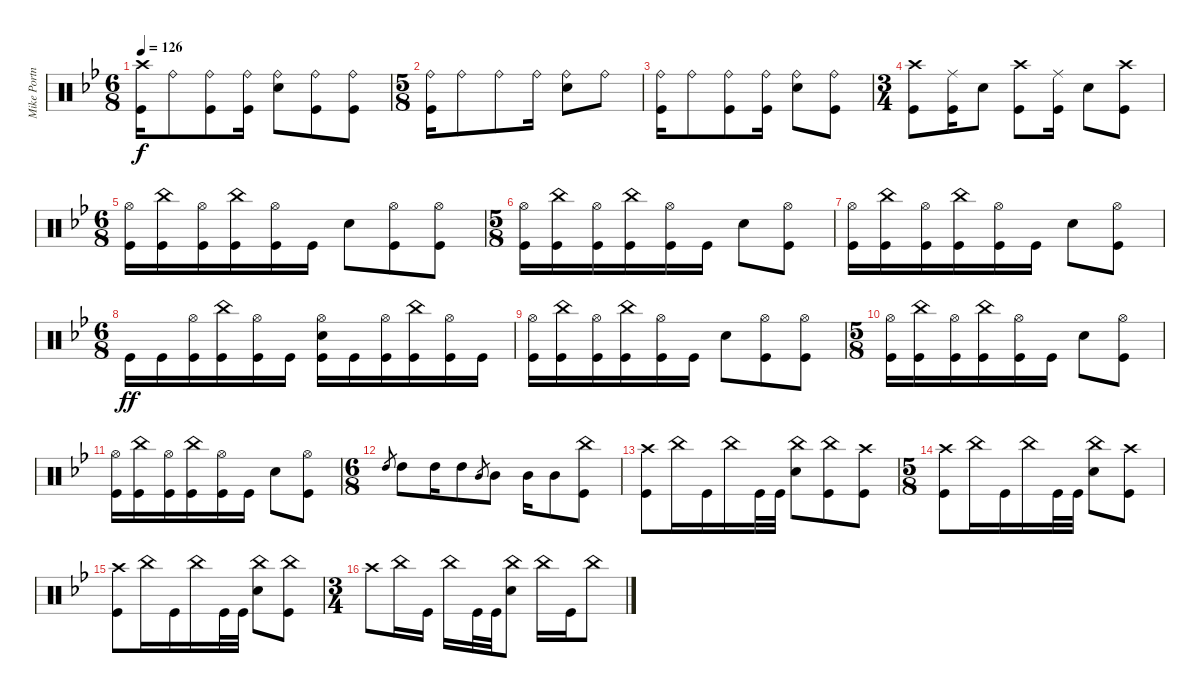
\track ("Mike Portnoy - Drums" "Mike Portn") {instrument percussion}
\staff {score}
\articulation defaults
\ts (6 8)
\tempo 126
\clef neutral
\ks gminor
("Crash high (hit)" "Kick (hit)").16{dy f} "Ride (bell)".8 ("Ride (bell)" "Kick (hit)").8 ("Ride (bell)" "Kick (hit)").16 ("Ride (bell)" "Snare (hit) 2").8 ("Ride (bell)" "Kick (hit)").8 ("Ride (bell)" "Kick (hit)").8 |
\ts (5 8)
("Ride (bell)" "Kick (hit)").16 "Ride (bell)".8 "Ride (bell)".8 "Ride (bell)".16 ("Ride (bell)" "Snare (hit) 2").8 "Ride (bell)".8 |
("Ride (bell)" "Kick (hit)").16 "Ride (bell)".8 ("Ride (bell)" "Kick (hit)").8 ("Ride (bell)" "Kick (hit)").16 ("Ride (bell)" "Snare (hit) 2").8 ("Ride (bell)" "Kick (hit)").8 |
\ts (3 4)
("Crash high (hit)" "Kick (hit)").8 ("Ride (middle)" "Kick (hit)").16 "Snare (hit) 2".8 ("Crash high (hit)" "Kick (hit)").8 ("Ride (middle)" "Kick (hit)").16 "Snare (hit) 2".8 ("Crash high (hit)" "Kick (hit)").8 |
\ts (6 8)
("Hi-Hat (open)" "Kick (hit)").16 ("China (hit)" "Kick (hit)").16 ("Hi-Hat (open)" "Kick (hit)").16 ("China (hit)" "Kick (hit)").16 ("Hi-Hat (open)" "Kick (hit)").16 "Kick (hit)".16 "Snare (hit) 2".8 ("Hi-Hat (open)" "Kick (hit)").8 ("Hi-Hat (open)" "Kick (hit)").8 |
\ts (5 8)
("Hi-Hat (open)" "Kick (hit)").16 ("China (hit)" "Kick (hit)").16 ("Hi-Hat (open)" "Kick (hit)").16 ("China (hit)" "Kick (hit)").16 ("Hi-Hat (open)" "Kick (hit)").16 "Kick (hit)".16 "Snare (hit) 2".8 ("Hi-Hat (open)" "Kick (hit)").8 |
("Hi-Hat (open)" "Kick (hit)").16 ("China (hit)" "Kick (hit)").16 ("Hi-Hat (open)" "Kick (hit)").16 ("China (hit)" "Kick (hit)").16 ("Hi-Hat (open)" "Kick (hit)").16 "Kick (hit)".16 "Snare (hit) 2".8 ("Hi-Hat (open)" "Kick (hit)").8 |
\ts (6 8)
"Kick (hit)".16{dy ff} "Kick (hit)".16 ("Hi-Hat (open)" "Kick (hit)").16 ("China (hit)" "Kick (hit)").16 ("Hi-Hat (open)" "Kick (hit)").16 "Kick (hit)".16 ("Hi-Hat (open)" "Snare (hit) 2" "Kick (hit)").16 "Kick (hit)".16 ("Hi-Hat (open)" "Kick (hit)").16 ("China (hit)" "Kick (hit)").16 ("Hi-Hat (open)" "Kick (hit)").16 "Kick (hit)".16 |
("Hi-Hat (open)" "Kick (hit)").16 ("China (hit)" "Kick (hit)").16 ("Hi-Hat (open)" "Kick (hit)").16 ("China (hit)" "Kick (hit)").16 ("Hi-Hat (open)" "Kick (hit)").16 "Kick (hit)".16 "Snare (hit) 2".8 ("Hi-Hat (open)" "Kick (hit)").8 ("Hi-Hat (open)" "Kick (hit)").8 |
\ts (5 8)
("Hi-Hat (open)" "Kick (hit)").16 ("China (hit)" "Kick (hit)").16 ("Hi-Hat (open)" "Kick (hit)").16 ("China (hit)" "Kick (hit)").16 ("Hi-Hat (open)" "Kick (hit)").16 "Kick (hit)".16 "Snare (hit) 2".8 ("Hi-Hat (open)" "Kick (hit)").8 |
("Hi-Hat (open)" "Kick (hit)").16 ("China (hit)" "Kick (hit)").16 ("Hi-Hat (open)" "Kick (hit)").16 ("China (hit)" "Kick (hit)").16 ("Hi-Hat (open)" "Kick (hit)").16 "Kick (hit)".16 "Snare (hit) 2".8 ("Hi-Hat (open)" "Kick (hit)").8 |
\ts (6 8)
"High Tom (hit)".8{gr} "High Tom (hit)".8 "High Tom (hit)".16 "High Tom (hit)".8 "Mid Tom (hit)".8{gr} "Mid Tom (hit)".8 "Mid Tom (hit)".16 "Mid Tom (hit)".8 ("China (hit)" "Kick (hit)").8 |
("Crash high (hit)" "Kick (hit)").8 "China (hit)".16 "Kick (hit)".16 "China (hit)".16 "Kick (hit)".32 "Kick (hit)".32 ("China (hit)" "Snare (hit) 2").8 ("China (hit)" "Kick (hit)").8 ("Crash high (hit)" "Kick (hit)").8 |
\ts (5 8)
("Crash high (hit)" "Kick (hit)").8 "China (hit)".16 "Kick (hit)".16 "China (hit)".16 "Kick (hit)".32 "Kick (hit)".32 ("China (hit)" "Snare (hit) 2").8 ("Crash high (hit)" "Kick (hit)").8 |
("Crash high (hit)" "Kick (hit)").8 "China (hit)".16 "Kick (hit)".16 "China (hit)".16 "Kick (hit)".32 "Kick (hit)".32 ("China (hit)" "Snare (hit) 2").8 ("China (hit)" "Kick (hit)").8 |
\ts (3 4)
"Crash high (hit)".8 "China (hit)".16 "Kick (hit)".16 "China (hit)".16 "Kick (hit)".32 "Kick (hit)".32 ("China (hit)" "Snare (hit) 2").8 "China (hit)".16 "Kick (hit)".16 "China (hit)".8
